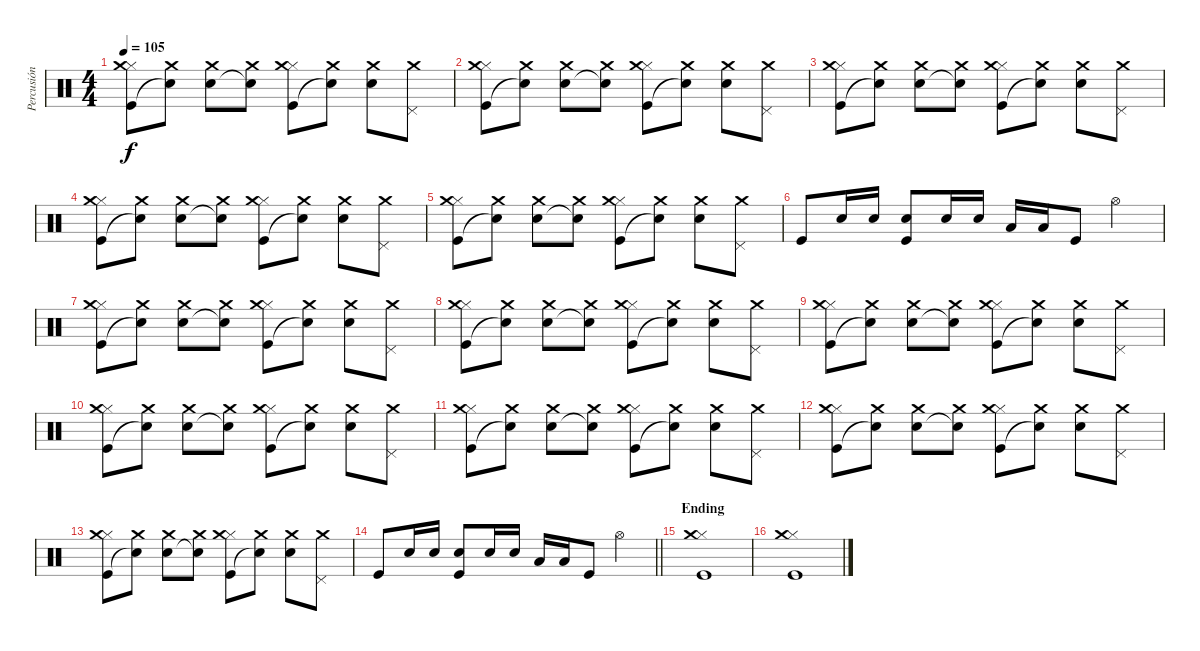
\track ("Percusión" "Percusión") {instrument percussion}
\staff {score}
\articulation defaults
\ts (4 4)
\tempo 105
\clef neutral
\ks c
("Kick (hit)" "Hi-Hat (closed)" "Crash medium (hit)").8{dy f} ("Snare (hit)"{t} "Crash medium (hit)").8 ("Electric Snare (hit)" "Crash medium (hit)").8 ("Snare (hit)"{t} "Crash medium (hit)").8 ("Kick (hit)" "Hi-Hat (closed)" "Crash medium (hit)").8 ("Snare (hit)"{t} "Crash medium (hit)").8 ("Electric Snare (hit)" "Crash medium (hit)").8 ("Pedal Hi-Hat (hit)" "Crash medium (hit)").8 |
("Kick (hit)" "Hi-Hat (closed)" "Crash medium (hit)").8 ("Snare (hit)"{t} "Crash medium (hit)").8 ("Electric Snare (hit)" "Crash medium (hit)").8 ("Snare (hit)"{t} "Crash medium (hit)").8 ("Kick (hit)" "Hi-Hat (closed)" "Crash medium (hit)").8 ("Snare (hit)"{t} "Crash medium (hit)").8 ("Electric Snare (hit)" "Crash medium (hit)").8 ("Pedal Hi-Hat (hit)" "Crash medium (hit)").8 |
("Kick (hit)" "Hi-Hat (closed)" "Crash medium (hit)").8 ("Snare (hit)"{t} "Crash medium (hit)").8 ("Electric Snare (hit)" "Crash medium (hit)").8 ("Snare (hit)"{t} "Crash medium (hit)").8 ("Kick (hit)" "Hi-Hat (closed)" "Crash medium (hit)").8 ("Snare (hit)"{t} "Crash medium (hit)").8 ("Electric Snare (hit)" "Crash medium (hit)").8 ("Pedal Hi-Hat (hit)" "Crash medium (hit)").8 |
("Kick (hit)" "Hi-Hat (closed)" "Crash medium (hit)").8 ("Snare (hit)"{t} "Crash medium (hit)").8 ("Electric Snare (hit)" "Crash medium (hit)").8 ("Snare (hit)"{t} "Crash medium (hit)").8 ("Kick (hit)" "Hi-Hat (closed)" "Crash medium (hit)").8 ("Snare (hit)"{t} "Crash medium (hit)").8 ("Electric Snare (hit)" "Crash medium (hit)").8 ("Pedal Hi-Hat (hit)" "Crash medium (hit)").8 |
("Kick (hit)" "Hi-Hat (closed)" "Crash medium (hit)").8 ("Snare (hit)"{t} "Crash medium (hit)").8 ("Electric Snare (hit)" "Crash medium (hit)").8 ("Snare (hit)"{t} "Crash medium (hit)").8 ("Kick (hit)" "Hi-Hat (closed)" "Crash medium (hit)").8 ("Snare (hit)"{t} "Crash medium (hit)").8 ("Electric Snare (hit)" "Crash medium (hit)").8 ("Pedal Hi-Hat (hit)" "Crash medium (hit)").8 |
"Kick (hit)".8 "Electric Snare (hit)".16 "Electric Snare (hit)".16 ("Electric Snare (hit)" "Kick (hit)").8 "Electric Snare (hit)".16 "Electric Snare (hit)".16 "Low Tom (hit)".16 "Low Floor Tom (hit)".16 "Kick (hit)".8 "Hi-Hat (open)".4 |
("Kick (hit)" "Hi-Hat (closed)" "Crash medium (hit)").8 ("Snare (hit)"{t} "Crash medium (hit)").8 ("Electric Snare (hit)" "Crash medium (hit)").8 ("Snare (hit)"{t} "Crash medium (hit)").8 ("Kick (hit)" "Hi-Hat (closed)" "Crash medium (hit)").8 ("Snare (hit)"{t} "Crash medium (hit)").8 ("Electric Snare (hit)" "Crash medium (hit)").8 ("Pedal Hi-Hat (hit)" "Crash medium (hit)").8 |
("Kick (hit)" "Hi-Hat (closed)" "Crash medium (hit)").8 ("Snare (hit)"{t} "Crash medium (hit)").8 ("Electric Snare (hit)" "Crash medium (hit)").8 ("Snare (hit)"{t} "Crash medium (hit)").8 ("Kick (hit)" "Hi-Hat (closed)" "Crash medium (hit)").8 ("Snare (hit)"{t} "Crash medium (hit)").8 ("Electric Snare (hit)" "Crash medium (hit)").8 ("Pedal Hi-Hat (hit)" "Crash medium (hit)").8 |
("Kick (hit)" "Hi-Hat (closed)" "Crash medium (hit)").8 ("Snare (hit)"{t} "Crash medium (hit)").8 ("Electric Snare (hit)" "Crash medium (hit)").8 ("Snare (hit)"{t} "Crash medium (hit)").8 ("Kick (hit)" "Hi-Hat (closed)" "Crash medium (hit)").8 ("Snare (hit)"{t} "Crash medium (hit)").8 ("Electric Snare (hit)" "Crash medium (hit)").8 ("Pedal Hi-Hat (hit)" "Crash medium (hit)").8 |
("Kick (hit)" "Hi-Hat (closed)" "Crash medium (hit)").8 ("Snare (hit)"{t} "Crash medium (hit)").8 ("Electric Snare (hit)" "Crash medium (hit)").8 ("Snare (hit)"{t} "Crash medium (hit)").8 ("Kick (hit)" "Hi-Hat (closed)" "Crash medium (hit)").8 ("Snare (hit)"{t} "Crash medium (hit)").8 ("Electric Snare (hit)" "Crash medium (hit)").8 ("Pedal Hi-Hat (hit)" "Crash medium (hit)").8 |
("Kick (hit)" "Hi-Hat (closed)" "Crash medium (hit)").8 ("Snare (hit)"{t} "Crash medium (hit)").8 ("Electric Snare (hit)" "Crash medium (hit)").8 ("Snare (hit)"{t} "Crash medium (hit)").8 ("Kick (hit)" "Hi-Hat (closed)" "Crash medium (hit)").8 ("Snare (hit)"{t} "Crash medium (hit)").8 ("Electric Snare (hit)" "Crash medium (hit)").8 ("Pedal Hi-Hat (hit)" "Crash medium (hit)").8 |
("Kick (hit)" "Hi-Hat (closed)" "Crash medium (hit)").8 ("Snare (hit)"{t} "Crash medium (hit)").8 ("Electric Snare (hit)" "Crash medium (hit)").8 ("Snare (hit)"{t} "Crash medium (hit)").8 ("Kick (hit)" "Hi-Hat (closed)" "Crash medium (hit)").8 ("Snare (hit)"{t} "Crash medium (hit)").8 ("Electric Snare (hit)" "Crash medium (hit)").8 ("Pedal Hi-Hat (hit)" "Crash medium (hit)").8 |
("Kick (hit)" "Hi-Hat (closed)" "Crash medium (hit)").8 ("Snare (hit)"{t} "Crash medium (hit)").8 ("Electric Snare (hit)" "Crash medium (hit)").8 ("Snare (hit)"{t} "Crash medium (hit)").8 ("Kick (hit)" "Hi-Hat (closed)" "Crash medium (hit)").8 ("Snare (hit)"{t} "Crash medium (hit)").8 ("Electric Snare (hit)" "Crash medium (hit)").8 ("Pedal Hi-Hat (hit)" "Crash medium (hit)").8 |
\barLineRight lightlight "Kick (hit)".8 "Electric Snare (hit)".16 "Electric Snare (hit)".16
("Electric Snare (hit)" "Kick (hit)").8 "Electric Snare (hit)".16 "Electric Snare (hit)".16 "Low Tom (hit)".16 "Low Floor Tom (hit)".16 "Kick (hit)".8 "Hi-Hat (open)".4 |
\section ("" "Ending")
("Kick (hit)" "Hi-Hat (closed)" "Crash medium (hit)").1 |
("Kick (hit)" "Hi-Hat (closed)" "Crash medium (hit)").1
